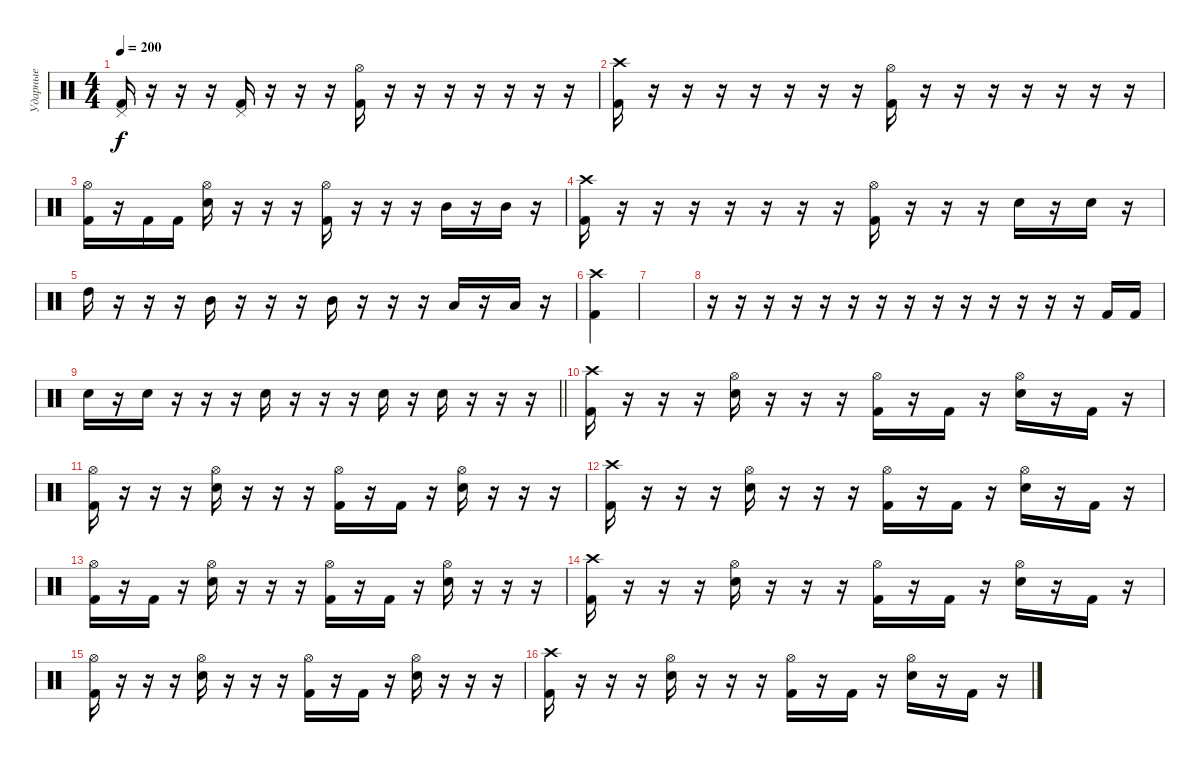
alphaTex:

\track ("Ударные" "Ударные") {instrument percussion}
\staff {score}
\articulation defaults
\ts (4 4)
\tempo 200
\clef neutral
\ks c
("Pedal Hi-Hat (hit)" "Kick (hit) 2").16{dy f} r.16 r.16 r.16 ("Pedal Hi-Hat (hit)" "Kick (hit) 2").16 r.16 r.16 r.16 ("Hi-Hat (open)" "Kick (hit) 2").16 r.16 r.16 r.16 r.16 r.16 r.16 r.16 |
("Crash high (hit)" "Kick (hit) 2").16 r.16 r.16 r.16 r.16 r.16 r.16 r.16 ("Hi-Hat (open)" "Kick (hit) 2").16 r.16 r.16 r.16 r.16 r.16 r.16 r.16 |
("Hi-Hat (open)" "Kick (hit) 2").16 r.16 "Kick (hit) 2".16 "Kick (hit) 2".16 ("Hi-Hat (open)" "Electric Snare (hit)").16 r.16 r.16 r.16 ("Hi-Hat (open)" "Kick (hit) 2").16 r.16 r.16 r.16 "Mid Tom (hit)".16 r.16 "Mid Tom (hit)".16 r.16 |
("Crash high (hit)" "Kick (hit) 2").16 r.16 r.16 r.16 r.16 r.16 r.16 r.16 ("Hi-Hat (open)" "Kick (hit) 2").16 r.16 r.16 r.16 "Electric Snare (hit)".16 r.16 "Electric Snare (hit)".16 r.16 |
"High Tom (hit)".16 r.16 r.16 r.16 "Mid Tom (hit)".16 r.16 r.16 r.16 "Mid Tom (hit)".16 r.16 r.16 r.16 "Low Tom (hit)".16 r.16 "Low Tom (hit)".16 r.16 |
("Crash high (hit)" "Kick (hit) 2").4 |
|
r.16 r.16 r.16 r.16 r.16 r.16 r.16 r.16 r.16 r.16 r.16 r.16 r.16 r.16 "Kick (hit) 2".16 "Kick (hit) 2".16 |
\barLineRight lightlight "Electric Snare (hit)".16
r.16 "Electric Snare (hit)".16 r.16 r.16 r.16 "Electric Snare (hit)".16 r.16 r.16 r.16 "Electric Snare (hit)".16 r.16 "Electric Snare (hit)".16 r.16 r.16 r.16 |
\section ("" "")
("Crash high (hit)" "Kick (hit) 2").16 r.16 r.16 r.16 ("Hi-Hat (open)" "Electric Snare (hit)").16 r.16 r.16 r.16 ("Hi-Hat (open)" "Kick (hit) 2").16 r.16 "Kick (hit) 2".16 r.16 ("Hi-Hat (open)" "Electric Snare (hit)").16 r.16 "Kick (hit) 2".16 r.16 |
("Hi-Hat (open)" "Kick (hit) 2").16 r.16 r.16 r.16 ("Hi-Hat (open)" "Electric Snare (hit)").16 r.16 r.16 r.16 ("Hi-Hat (open)" "Kick (hit) 2").16 r.16 "Kick (hit) 2".16 r.16 ("Hi-Hat (open)" "Electric Snare (hit)").16 r.16 r.16 r.16 |
("Crash high (hit)" "Kick (hit) 2").16 r.16 r.16 r.16 ("Hi-Hat (open)" "Electric Snare (hit)").16 r.16 r.16 r.16 ("Hi-Hat (open)" "Kick (hit) 2").16 r.16 "Kick (hit) 2".16 r.16 ("Hi-Hat (open)" "Electric Snare (hit)").16 r.16 "Kick (hit) 2".16 r.16 |
("Hi-Hat (open)" "Kick (hit) 2").16 r.16 "Kick (hit) 2".16 r.16 ("Hi-Hat (open)" "Electric Snare (hit)").16 r.16 r.16 r.16 ("Hi-Hat (open)" "Kick (hit) 2").16 r.16 "Kick (hit) 2".16 r.16 ("Hi-Hat (open)" "Electric Snare (hit)").16 r.16 r.16 r.16 |
("Crash high (hit)" "Kick (hit) 2").16 r.16 r.16 r.16 ("Hi-Hat (open)" "Electric Snare (hit)").16 r.16 r.16 r.16 ("Hi-Hat (open)" "Kick (hit) 2").16 r.16 "Kick (hit) 2".16 r.16 ("Hi-Hat (open)" "Electric Snare (hit)").16 r.16 "Kick (hit) 2".16 r.16 |
("Hi-Hat (open)" "Kick (hit) 2").16 r.16 r.16 r.16 ("Hi-Hat (open)" "Electric Snare (hit)").16 r.16 r.16 r.16 ("Hi-Hat (open)" "Kick (hit) 2").16 r.16 "Kick (hit) 2".16 r.16 ("Hi-Hat (open)" "Electric Snare (hit)").16 r.16 r.16 r.16 |
("Crash high (hit)" "Kick (hit) 2").16 r.16 r.16 r.16 ("Hi-Hat (open)" "Electric Snare (hit)").16 r.16 r.16 r.16 ("Hi-Hat (open)" "Kick (hit) 2").16 r.16 "Kick (hit) 2".16 r.16 ("Hi-Hat (open)" "Electric Snare (hit)").16 r.16 "Kick (hit) 2".16 r.16
